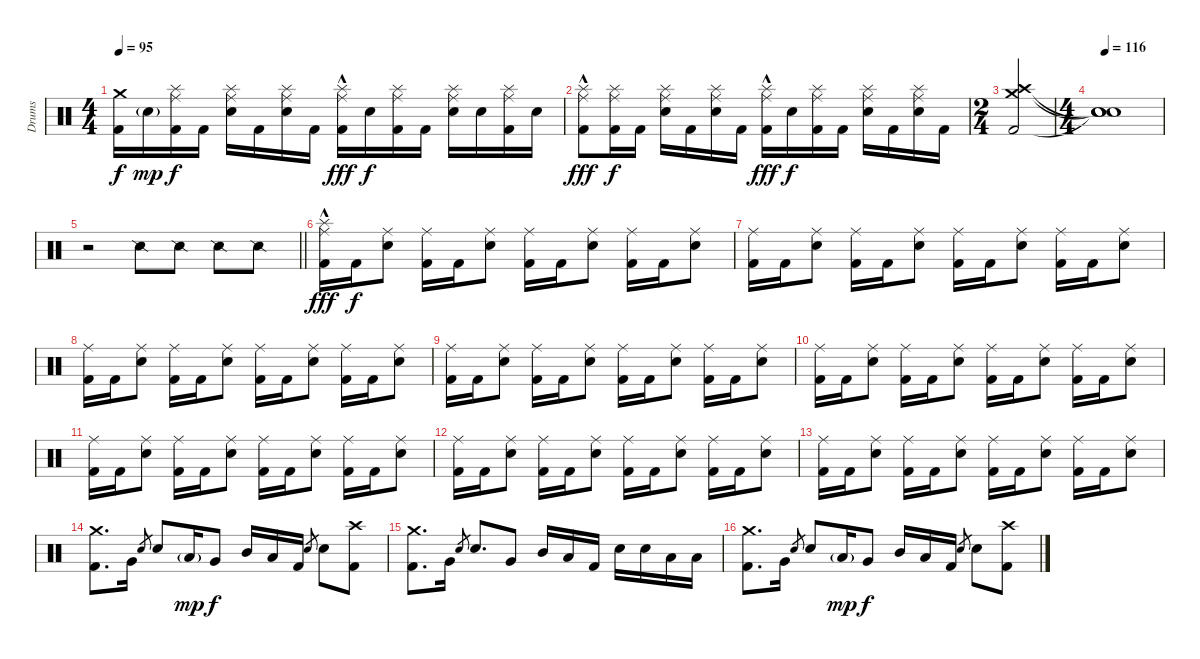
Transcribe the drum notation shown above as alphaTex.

\track ("Drums" "Drums") {instrument percussion}
\staff {score}
\articulation defaults
\ts (4 4)
\tempo 95
\clef neutral
\ks c
("Crash medium (hit)" "Kick (hit) 2").16{dy f} "Electric Snare (hit)"{g}.16{dy mp} ("Ride (middle)" "Splash (hit)" "Kick (hit) 2").16{dy f} "Kick (hit) 2".16 ("Ride (middle)" "Splash (hit)" "Electric Snare (hit)").16 "Kick (hit) 2".16 ("Ride (middle)" "Splash (hit)" "Electric Snare (hit)").16 "Kick (hit) 2".16 ("Ride (middle)" "Splash (hit)"{hac} "Kick (hit) 2").16{dy fff} "Electric Snare (hit)".16{dy f} ("Ride (middle)" "Splash (hit)" "Kick (hit) 2").16 "Kick (hit) 2".16 ("Ride (middle)" "Splash (hit)" "Electric Snare (hit)").16 "Electric Snare (hit)".16 ("Ride (middle)" "Splash (hit)" "Kick (hit) 2").16 "Electric Snare (hit)".16 |
("Ride (middle)" "Splash (hit)"{hac} "Kick (hit) 2").8{dy fff} ("Ride (middle)" "Splash (hit)" "Kick (hit) 2").16{dy f} "Kick (hit) 2".16 ("Ride (middle)" "Splash (hit)" "Electric Snare (hit)").16 "Kick (hit) 2".16 ("Ride (middle)" "Splash (hit)" "Electric Snare (hit)").16 "Kick (hit) 2".16 ("Ride (middle)" "Splash (hit)"{hac} "Kick (hit) 2").16{dy fff} "Electric Snare (hit)".16{dy f} ("Ride (middle)" "Splash (hit)" "Kick (hit) 2").16 "Kick (hit) 2".16 ("Ride (middle)" "Splash (hit)" "Electric Snare (hit)").16 "Kick (hit) 2".16 ("Ride (middle)" "Splash (hit)" "Electric Snare (hit)").16 "Kick (hit) 2".16 |
\ts (2 4)
("Crash high (hit)" "Crash medium (hit)" "Kick (hit) 2").2{beam Up} |
\ts (4 4)
\tempo 116
("Snare (hit)"{t} "Snare (hit)"{t} "Snare (hit)"{t}).1 |
\barLineRight lightlight
r.2 "Snare (side stick) 2".8 "Snare (side stick) 2".8 "Snare (side stick) 2".8 "Snare (side stick) 2".8 |
("Ride (middle)"{hac} "Splash (hit)" "Kick (hit) 2").16{dy fff} "Kick (hit) 2".16{dy f} ("Ride (middle)" "Electric Snare (hit)").8 ("Ride (middle)" "Kick (hit) 2").16 "Kick (hit) 2".16 ("Ride (middle)" "Electric Snare (hit)").8 ("Ride (middle)" "Kick (hit) 2").16 "Kick (hit) 2".16 ("Ride (middle)" "Electric Snare (hit)").8 ("Ride (middle)" "Kick (hit) 2").16 "Kick (hit) 2".16 ("Ride (middle)" "Electric Snare (hit)").8 |
("Ride (middle)" "Kick (hit) 2").16 "Kick (hit) 2".16 ("Ride (middle)" "Electric Snare (hit)").8 ("Ride (middle)" "Kick (hit) 2").16 "Kick (hit) 2".16 ("Ride (middle)" "Electric Snare (hit)").8 ("Ride (middle)" "Kick (hit) 2").16 "Kick (hit) 2".16 ("Ride (middle)" "Electric Snare (hit)").8 ("Ride (middle)" "Kick (hit) 2").16 "Kick (hit) 2".16 ("Ride (middle)" "Electric Snare (hit)").8 |
("Ride (middle)" "Kick (hit) 2").16 "Kick (hit) 2".16 ("Ride (middle)" "Electric Snare (hit)").8 ("Ride (middle)" "Kick (hit) 2").16 "Kick (hit) 2".16 ("Ride (middle)" "Electric Snare (hit)").8 ("Ride (middle)" "Kick (hit) 2").16 "Kick (hit) 2".16 ("Ride (middle)" "Electric Snare (hit)").8 ("Ride (middle)" "Kick (hit) 2").16 "Kick (hit) 2".16 ("Ride (middle)" "Electric Snare (hit)").8 |
("Ride (middle)" "Kick (hit) 2").16 "Kick (hit) 2".16 ("Ride (middle)" "Electric Snare (hit)").8 ("Ride (middle)" "Kick (hit) 2").16 "Kick (hit) 2".16 ("Ride (middle)" "Electric Snare (hit)").8 ("Ride (middle)" "Kick (hit) 2").16 "Kick (hit) 2".16 ("Ride (middle)" "Electric Snare (hit)").8 ("Ride (middle)" "Kick (hit) 2").16 "Kick (hit) 2".16 ("Ride (middle)" "Electric Snare (hit)").8 |
("Ride (middle)" "Kick (hit) 2").16 "Kick (hit) 2".16 ("Ride (middle)" "Electric Snare (hit)").8 ("Ride (middle)" "Kick (hit) 2").16 "Kick (hit) 2".16 ("Ride (middle)" "Electric Snare (hit)").8 ("Ride (middle)" "Kick (hit) 2").16 "Kick (hit) 2".16 ("Ride (middle)" "Electric Snare (hit)").8 ("Ride (middle)" "Kick (hit) 2").16 "Kick (hit) 2".16 ("Ride (middle)" "Electric Snare (hit)").8 |
("Ride (middle)" "Kick (hit) 2").16 "Kick (hit) 2".16 ("Ride (middle)" "Electric Snare (hit)").8 ("Ride (middle)" "Kick (hit) 2").16 "Kick (hit) 2".16 ("Ride (middle)" "Electric Snare (hit)").8 ("Ride (middle)" "Kick (hit) 2").16 "Kick (hit) 2".16 ("Ride (middle)" "Electric Snare (hit)").8 ("Ride (middle)" "Kick (hit) 2").16 "Kick (hit) 2".16 ("Ride (middle)" "Electric Snare (hit)").8 |
("Ride (middle)" "Kick (hit) 2").16 "Kick (hit) 2".16 ("Ride (middle)" "Electric Snare (hit)").8 ("Ride (middle)" "Kick (hit) 2").16 "Kick (hit) 2".16 ("Ride (middle)" "Electric Snare (hit)").8 ("Ride (middle)" "Kick (hit) 2").16 "Kick (hit) 2".16 ("Ride (middle)" "Electric Snare (hit)").8 ("Ride (middle)" "Kick (hit) 2").16 "Kick (hit) 2".16 ("Ride (middle)" "Electric Snare (hit)").8 |
("Ride (middle)" "Kick (hit) 2").16 "Kick (hit) 2".16 ("Ride (middle)" "Electric Snare (hit)").8 ("Ride (middle)" "Kick (hit) 2").16 "Kick (hit) 2".16 ("Ride (middle)" "Electric Snare (hit)").8 ("Ride (middle)" "Kick (hit) 2").16 "Kick (hit) 2".16 ("Ride (middle)" "Electric Snare (hit)").8 ("Ride (middle)" "Kick (hit) 2").16 "Kick (hit) 2".16 ("Ride (middle)" "Electric Snare (hit)").8 |
("Crash medium (hit)" "Kick (hit) 2").8{d} "Very Low Tom (hit)".16 "Electric Snare (hit)".8{gr} "Electric Snare (hit)".8 "Low Tom (hit)"{g}.16{dy mp} "Very Low Tom (hit)".8{dy f} "Mid Tom (hit)".16 "Low Tom (hit)".16 "Kick (hit) 2".16 "Electric Snare (hit)".8{gr} "Electric Snare (hit)".8 ("Crash high (hit)" "Kick (hit) 2").8 |
("Crash medium (hit)" "Kick (hit) 2").8{d} "Very Low Tom (hit)".16 "Electric Snare (hit)".8{gr} "Electric Snare (hit)".8{d} "Very Low Tom (hit)".8 "Mid Tom (hit)".16 "Low Tom (hit)".16 "Kick (hit) 2".16 "Electric Snare (hit)".16 "Electric Snare (hit)".16 "Low Tom (hit)".16 "Low Tom (hit)".16 |
("Crash medium (hit)" "Kick (hit) 2").8{d} "Very Low Tom (hit)".16 "Electric Snare (hit)".8{gr} "Electric Snare (hit)".8 "Low Tom (hit)"{g}.16{dy mp} "Very Low Tom (hit)".8{dy f} "Mid Tom (hit)".16 "Low Tom (hit)".16 "Kick (hit) 2".16 "Electric Snare (hit)".8{gr} "Electric Snare (hit)".8 ("Crash high (hit)" "Kick (hit) 2").8
